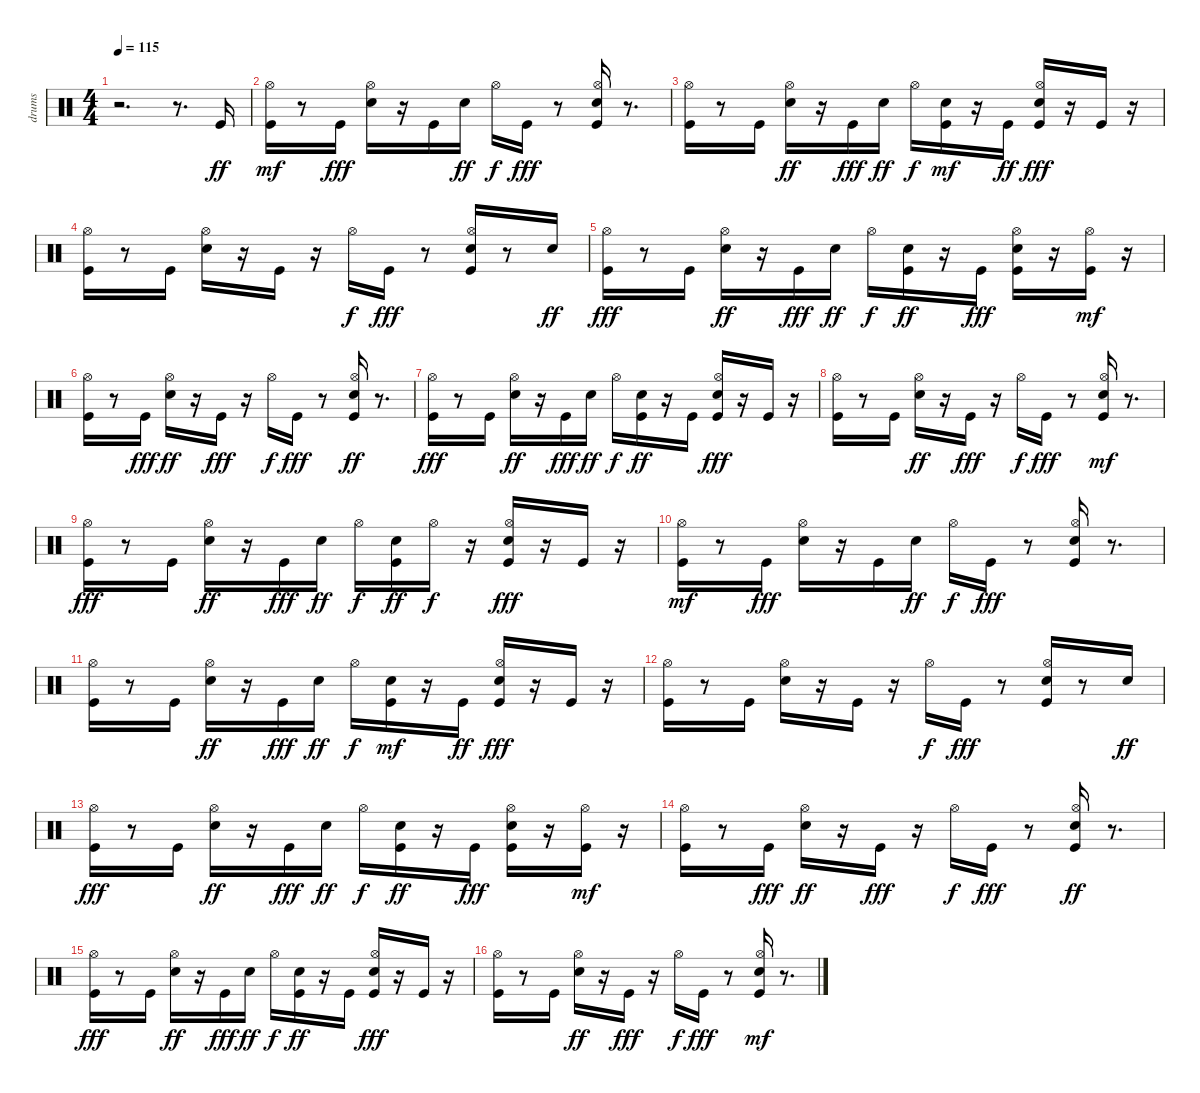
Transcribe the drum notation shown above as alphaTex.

\track ("drums" "drums") {instrument percussion}
\staff {score}
\articulation defaults
\ts (4 4)
\tempo 115
\clef neutral
\ks c
r.2{d dy ff} r.8{d} "Kick (hit)".16 |
("Kick (hit)" "Hi-Hat (open)").16{dy mf} r.8 "Kick (hit)".16{dy fff} ("Snare (hit) 2" "Hi-Hat (open)").16 r.16 "Kick (hit)".16 "Snare (hit) 2".16{dy ff} "Hi-Hat (open)".16{dy f} "Kick (hit)".16{dy fff} r.8 ("Kick (hit)" "Snare (hit) 2" "Hi-Hat (open)").16 r.8{d} |
("Kick (hit)" "Hi-Hat (open)").16 r.8 "Kick (hit)".16 ("Snare (hit) 2" "Hi-Hat (open)").16{dy ff} r.16 "Kick (hit)".16{dy fff} "Snare (hit) 2".16{dy ff} "Hi-Hat (open)".16{dy f} ("Kick (hit)" "Snare (hit) 2").16{dy mf} r.16 "Kick (hit)".16{dy ff} ("Kick (hit)" "Snare (hit) 2" "Hi-Hat (open)").16{dy fff} r.16 "Kick (hit)".16 r.16 |
("Kick (hit)" "Hi-Hat (open)").16 r.8 "Kick (hit)".16 ("Snare (hit) 2" "Hi-Hat (open)").16 r.16 "Kick (hit)".16 r.16 "Hi-Hat (open)".16{dy f} "Kick (hit)".16{dy fff} r.8 ("Kick (hit)" "Snare (hit) 2" "Hi-Hat (open)").16 r.8 "Snare (hit) 2".16{dy ff} |
("Kick (hit)" "Hi-Hat (open)").16{dy fff} r.8 "Kick (hit)".16 ("Snare (hit) 2" "Hi-Hat (open)").16{dy ff} r.16 "Kick (hit)".16{dy fff} "Snare (hit) 2".16{dy ff} "Hi-Hat (open)".16{dy f} ("Kick (hit)" "Snare (hit) 2").16{dy ff} r.16 "Kick (hit)".16{dy fff} ("Kick (hit)" "Snare (hit) 2" "Hi-Hat (open)").16 r.16 ("Kick (hit)" "Hi-Hat (open)").16{dy mf} r.16 |
("Kick (hit)" "Hi-Hat (open)").16 r.8 "Kick (hit)".16{dy fff} ("Snare (hit) 2" "Hi-Hat (open)").16{dy ff} r.16 "Kick (hit)".16{dy fff} r.16 "Hi-Hat (open)".16{dy f} "Kick (hit)".16{dy fff} r.8 ("Kick (hit)" "Snare (hit) 2" "Hi-Hat (open)").16{dy ff} r.8{d} |
("Kick (hit)" "Hi-Hat (open)").16{dy fff} r.8 "Kick (hit)".16 ("Snare (hit) 2" "Hi-Hat (open)").16{dy ff} r.16 "Kick (hit)".16{dy fff} "Snare (hit) 2".16{dy ff} "Hi-Hat (open)".16{dy f} ("Kick (hit)" "Snare (hit) 2").16{dy ff} r.16 "Kick (hit)".16 ("Kick (hit)" "Snare (hit) 2" "Hi-Hat (open)").16{dy fff} r.16 "Kick (hit)".16 r.16 |
("Kick (hit)" "Hi-Hat (open)").16 r.8 "Kick (hit)".16 ("Snare (hit) 2" "Hi-Hat (open)").16{dy ff} r.16 "Kick (hit)".16{dy fff} r.16 "Hi-Hat (open)".16{dy f} "Kick (hit)".16{dy fff} r.8 ("Kick (hit)" "Snare (hit) 2" "Hi-Hat (open)").16{dy mf} r.8{d} |
("Kick (hit)" "Hi-Hat (open)").16{dy fff} r.8 "Kick (hit)".16 ("Snare (hit) 2" "Hi-Hat (open)").16{dy ff} r.16 "Kick (hit)".16{dy fff} "Snare (hit) 2".16{dy ff} "Hi-Hat (open)".16{dy f} ("Kick (hit)" "Snare (hit) 2").16{dy ff} "Hi-Hat (open)".16{dy f} r.16 ("Kick (hit)" "Snare (hit) 2" "Hi-Hat (open)").16{dy fff} r.16 "Kick (hit)".16 r.16 |
("Kick (hit)" "Hi-Hat (open)").16{dy mf} r.8 "Kick (hit)".16{dy fff} ("Snare (hit) 2" "Hi-Hat (open)").16 r.16 "Kick (hit)".16 "Snare (hit) 2".16{dy ff} "Hi-Hat (open)".16{dy f} "Kick (hit)".16{dy fff} r.8 ("Kick (hit)" "Snare (hit) 2" "Hi-Hat (open)").16 r.8{d} |
("Kick (hit)" "Hi-Hat (open)").16 r.8 "Kick (hit)".16 ("Snare (hit) 2" "Hi-Hat (open)").16{dy ff} r.16 "Kick (hit)".16{dy fff} "Snare (hit) 2".16{dy ff} "Hi-Hat (open)".16{dy f} ("Kick (hit)" "Snare (hit) 2").16{dy mf} r.16 "Kick (hit)".16{dy ff} ("Kick (hit)" "Snare (hit) 2" "Hi-Hat (open)").16{dy fff} r.16 "Kick (hit)".16 r.16 |
("Kick (hit)" "Hi-Hat (open)").16 r.8 "Kick (hit)".16 ("Snare (hit) 2" "Hi-Hat (open)").16 r.16 "Kick (hit)".16 r.16 "Hi-Hat (open)".16{dy f} "Kick (hit)".16{dy fff} r.8 ("Kick (hit)" "Snare (hit) 2" "Hi-Hat (open)").16 r.8 "Snare (hit) 2".16{dy ff} |
("Kick (hit)" "Hi-Hat (open)").16{dy fff} r.8 "Kick (hit)".16 ("Snare (hit) 2" "Hi-Hat (open)").16{dy ff} r.16 "Kick (hit)".16{dy fff} "Snare (hit) 2".16{dy ff} "Hi-Hat (open)".16{dy f} ("Kick (hit)" "Snare (hit) 2").16{dy ff} r.16 "Kick (hit)".16{dy fff} ("Kick (hit)" "Snare (hit) 2" "Hi-Hat (open)").16 r.16 ("Kick (hit)" "Hi-Hat (open)").16{dy mf} r.16 |
("Kick (hit)" "Hi-Hat (open)").16 r.8 "Kick (hit)".16{dy fff} ("Snare (hit) 2" "Hi-Hat (open)").16{dy ff} r.16 "Kick (hit)".16{dy fff} r.16 "Hi-Hat (open)".16{dy f} "Kick (hit)".16{dy fff} r.8 ("Kick (hit)" "Snare (hit) 2" "Hi-Hat (open)").16{dy ff} r.8{d} |
("Kick (hit)" "Hi-Hat (open)").16{dy fff} r.8 "Kick (hit)".16 ("Snare (hit) 2" "Hi-Hat (open)").16{dy ff} r.16 "Kick (hit)".16{dy fff} "Snare (hit) 2".16{dy ff} "Hi-Hat (open)".16{dy f} ("Kick (hit)" "Snare (hit) 2").16{dy ff} r.16 "Kick (hit)".16 ("Kick (hit)" "Snare (hit) 2" "Hi-Hat (open)").16{dy fff} r.16 "Kick (hit)".16 r.16 |
("Kick (hit)" "Hi-Hat (open)").16 r.8 "Kick (hit)".16 ("Snare (hit) 2" "Hi-Hat (open)").16{dy ff} r.16 "Kick (hit)".16{dy fff} r.16 "Hi-Hat (open)".16{dy f} "Kick (hit)".16{dy fff} r.8 ("Kick (hit)" "Snare (hit) 2" "Hi-Hat (open)").16{dy mf} r.8{d}
